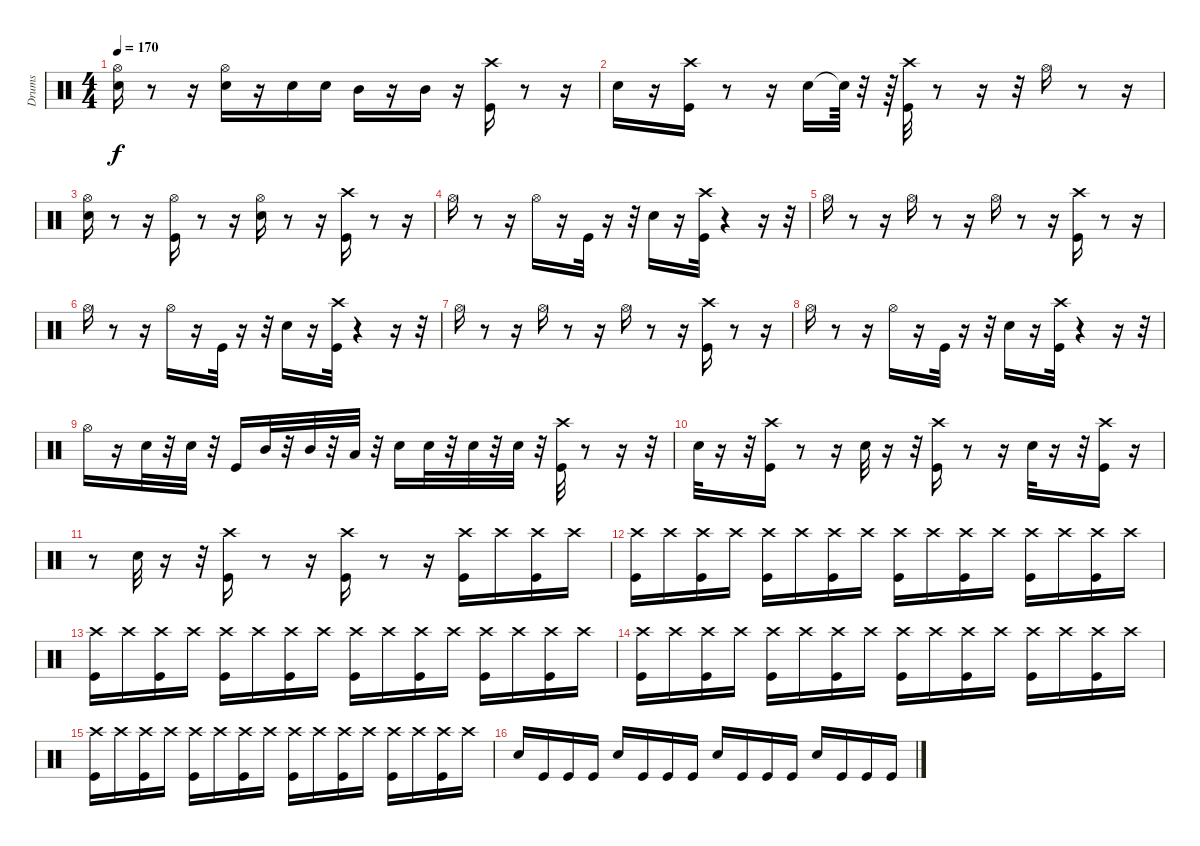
\track ("Drums" "Drums") {instrument percussion}
\staff {score}
\articulation defaults
\ts (4 4)
\tempo 170
\clef neutral
\ks c
("Hi-Hat (open)" "Snare (hit) 2").16{dy f} r.8 r.16 ("Hi-Hat (open)" "Snare (hit) 2").16 r.16 "Snare (hit) 2".16 "Snare (hit) 2".16 "Mid Tom (hit)".16 r.16 "Mid Tom (hit)".16 r.16 ("Kick (hit)" "Crash high (hit)").16 r.8 r.16 |
"Snare (hit) 2".16 r.16 ("Kick (hit)" "Crash high (hit)").16 r.8 r.16 "Snare (hit) 2".16 "Snare (hit)"{t}.64 r.32 r.64 ("Kick (hit)" "Crash high (hit)").32 r.8 r.16 r.32 "Hi-Hat (open)".16 r.8 r.16 |
("Hi-Hat (open)" "Snare (hit) 2").16 r.8 r.16 ("Hi-Hat (open)" "Kick (hit)").16 r.8 r.16 ("Hi-Hat (open)" "Snare (hit) 2").16 r.8 r.16 ("Kick (hit)" "Crash high (hit)").16 r.8 r.16 |
"Hi-Hat (open)".16 r.8 r.16 "Hi-Hat (open)".16 r.16 "Kick (hit)".32 r.16 r.32 "Snare (hit) 2".16 r.16 ("Kick (hit)" "Crash high (hit)").32 r.4 r.16 r.32 |
"Hi-Hat (open)".16 r.8 r.16 "Hi-Hat (open)".16 r.8 r.16 "Hi-Hat (open)".16 r.8 r.16 ("Kick (hit)" "Crash high (hit)").16 r.8 r.16 |
"Hi-Hat (open)".16 r.8 r.16 "Hi-Hat (open)".16 r.16 "Kick (hit)".32 r.16 r.32 "Snare (hit) 2".16 r.16 ("Kick (hit)" "Crash high (hit)").32 r.4 r.16 r.32 |
"Hi-Hat (open)".16 r.8 r.16 "Hi-Hat (open)".16 r.8 r.16 "Hi-Hat (open)".16 r.8 r.16 ("Kick (hit)" "Crash high (hit)").16 r.8 r.16 |
"Hi-Hat (open)".16 r.8 r.16 "Hi-Hat (open)".16 r.16 "Kick (hit)".32 r.16 r.32 "Snare (hit) 2".16 r.16 ("Kick (hit)" "Crash high (hit)").32 r.4 r.16 r.32 |
"Hi-Hat (open)".16 r.16 "Snare (hit) 2".32 r.32 "Snare (hit) 2".32 r.32 "Kick (hit)".16 "Mid Tom (hit)".32 r.32 "Mid Tom (hit)".32 r.32 "Low Tom (hit)".32 r.32 "Snare (hit) 2".16 "Snare (hit) 2".32 r.32 "Snare (hit) 2".32 r.32 "Snare (hit) 2".32 r.32 ("Kick (hit)" "Crash high (hit)").32 r.8 r.16 r.32 |
"Snare (hit) 2".32 r.16 r.32 ("Kick (hit)" "Crash high (hit)").16 r.8 r.16 "Snare (hit) 2".32 r.16 r.32 ("Kick (hit)" "Crash high (hit)").16 r.8 r.16 "Snare (hit) 2".32 r.16 r.32 ("Kick (hit)" "Crash high (hit)").16 r.16 |
r.8 "Snare (hit) 2".32 r.16 r.32 ("Kick (hit)" "Crash high (hit)").16 r.8 r.16 ("Kick (hit)" "Crash high (hit)").16 r.8 r.16 ("Crash high (hit)" "Kick (hit)").16 "Crash high (hit)".16 ("Kick (hit)" "Crash high (hit)").16 "Crash high (hit)".16 |
("Kick (hit)" "Crash high (hit)").16 "Crash high (hit)".16 ("Kick (hit)" "Crash high (hit)").16 "Crash high (hit)".16 ("Kick (hit)" "Crash high (hit)").16 "Crash high (hit)".16 ("Kick (hit)" "Crash high (hit)").16 "Crash high (hit)".16 ("Kick (hit)" "Crash high (hit)").16 "Crash high (hit)".16 ("Kick (hit)" "Crash high (hit)").16 "Crash high (hit)".16 ("Kick (hit)" "Crash high (hit)").16 "Crash high (hit)".16 ("Kick (hit)" "Crash high (hit)").16 "Crash high (hit)".16 |
("Kick (hit)" "Crash high (hit)").16 "Crash high (hit)".16 ("Kick (hit)" "Crash high (hit)").16 "Crash high (hit)".16 ("Kick (hit)" "Crash high (hit)").16 "Crash high (hit)".16 ("Kick (hit)" "Crash high (hit)").16 "Crash high (hit)".16 ("Kick (hit)" "Crash high (hit)").16 "Crash high (hit)".16 ("Kick (hit)" "Crash high (hit)").16 "Crash high (hit)".16 ("Kick (hit)" "Crash high (hit)").16 "Crash high (hit)".16 ("Kick (hit)" "Crash high (hit)").16 "Crash high (hit)".16 |
("Crash high (hit)" "Kick (hit)").16 "Crash high (hit)".16 ("Kick (hit)" "Crash high (hit)").16 "Crash high (hit)".16 ("Kick (hit)" "Crash high (hit)").16 "Crash high (hit)".16 ("Kick (hit)" "Crash high (hit)").16 "Crash high (hit)".16 ("Kick (hit)" "Crash high (hit)").16 "Crash high (hit)".16 ("Kick (hit)" "Crash high (hit)").16 "Crash high (hit)".16 ("Kick (hit)" "Crash high (hit)").16 "Crash high (hit)".16 ("Kick (hit)" "Crash high (hit)").16 "Crash high (hit)".16 |
("Kick (hit)" "Crash high (hit)").16 "Crash high (hit)".16 ("Kick (hit)" "Crash high (hit)").16 "Crash high (hit)".16 ("Kick (hit)" "Crash high (hit)").16 "Crash high (hit)".16 ("Kick (hit)" "Crash high (hit)").16 "Crash high (hit)".16 ("Kick (hit)" "Crash high (hit)").16 "Crash high (hit)".16 ("Kick (hit)" "Crash high (hit)").16 "Crash high (hit)".16 ("Kick (hit)" "Crash high (hit)").16 "Crash high (hit)".16 ("Kick (hit)" "Crash high (hit)").16 "Crash high (hit)".16 |
"Snare (hit) 2".16 "Kick (hit)".16 "Kick (hit)".16 "Kick (hit)".16 "Snare (hit) 2".16 "Kick (hit)".16 "Kick (hit)".16 "Kick (hit)".16 "Snare (hit) 2".16 "Kick (hit)".16 "Kick (hit)".16 "Kick (hit)".16 "Snare (hit) 2".16 "Kick (hit)".16 "Kick (hit)".16 "Kick (hit)".16
